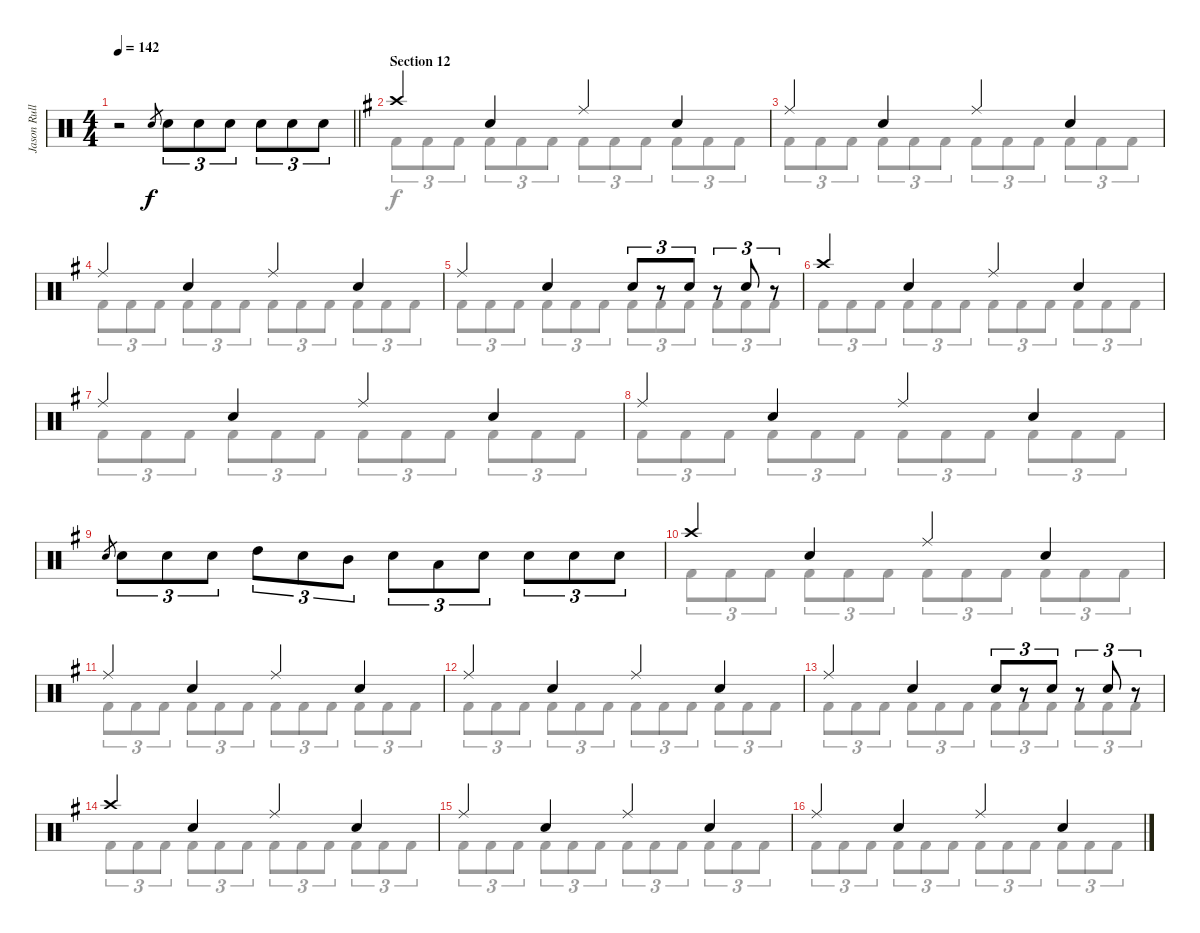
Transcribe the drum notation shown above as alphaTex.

\track ("Jason Rullo (drums)" "Jason Rull") {instrument percussion}
\staff {score}
\articulation defaults
\voice
\ts (4 4)
\tempo 142
\clef neutral
\barLineRight lightlight
\ks aminor
r.2{dy f} "Electric Snare (hit)".8{gr} "Electric Snare (hit)".8{tu (3 2)} "Electric Snare (hit)".8{tu (3 2)} "Electric Snare (hit)".8{tu (3 2)} "Electric Snare (hit)".8{tu (3 2)} "Electric Snare (hit)".8{tu (3 2)} "Electric Snare (hit)".8{tu (3 2)} |
\section ("" "Section 12")
\ks eminor "Crash high (hit)".4 "Electric Snare (hit)".4 "Ride (middle)".4 "Electric Snare (hit)".4
|
"Ride (middle)".4 "Electric Snare (hit)".4 "Ride (middle)".4 "Electric Snare (hit)".4 |
"Ride (middle)".4 "Electric Snare (hit)".4 "Ride (middle)".4 "Electric Snare (hit)".4 |
"Ride (middle)".4 "Electric Snare (hit)".4 "Electric Snare (hit)".8{tu (3 2)} r.8{tu (3 2)} "Electric Snare (hit)".8{tu (3 2)} r.8{tu (3 2)} "Electric Snare (hit)".8{tu (3 2)} r.8{tu (3 2)} |
"Crash high (hit)".4 "Electric Snare (hit)".4 "Ride (middle)".4 "Electric Snare (hit)".4 |
"Ride (middle)".4 "Electric Snare (hit)".4 "Ride (middle)".4 "Electric Snare (hit)".4 |
"Ride (middle)".4 "Electric Snare (hit)".4 "Ride (middle)".4 "Electric Snare (hit)".4 |
"Electric Snare (hit)".8{gr} "Electric Snare (hit)".8{tu (3 2)} "Electric Snare (hit)".8{tu (3 2)} "Electric Snare (hit)".8{tu (3 2)} "High Tom (hit)".8{tu (3 2)} "Electric Snare (hit)".8{tu (3 2)} "Mid Tom (hit)".8{tu (3 2)} "Electric Snare (hit)".8{tu (3 2)} "Low Tom (hit)".8{tu (3 2)} "Electric Snare (hit)".8{tu (3 2)} "Electric Snare (hit)".8{tu (3 2)} "Electric Snare (hit)".8{tu (3 2)} "Electric Snare (hit)".8{tu (3 2)} |
"Crash high (hit)".4 "Electric Snare (hit)".4 "Ride (middle)".4 "Electric Snare (hit)".4 |
"Ride (middle)".4 "Electric Snare (hit)".4 "Ride (middle)".4 "Electric Snare (hit)".4 |
"Ride (middle)".4 "Electric Snare (hit)".4 "Ride (middle)".4 "Electric Snare (hit)".4 |
"Ride (middle)".4 "Electric Snare (hit)".4 "Electric Snare (hit)".8{tu (3 2)} r.8{tu (3 2)} "Electric Snare (hit)".8{tu (3 2)} r.8{tu (3 2)} "Electric Snare (hit)".8{tu (3 2)} r.8{tu (3 2)} |
"Crash high (hit)".4 "Electric Snare (hit)".4 "Ride (middle)".4 "Electric Snare (hit)".4 |
"Ride (middle)".4 "Electric Snare (hit)".4 "Ride (middle)".4 "Electric Snare (hit)".4 |
"Ride (middle)".4 "Electric Snare (hit)".4 "Ride (middle)".4 "Electric Snare (hit)".4
\voice
\clef neutral
\ottava regular
\simile none
\barLineRight lightlight
\ks aminor
|
\ks eminor "Kick (hit) 2".8{tu (3 2)} "Kick (hit) 2".8{tu (3 2)} "Kick (hit) 2".8{tu (3 2)} "Kick (hit) 2".8{tu (3 2)} "Kick (hit) 2".8{tu (3 2)} "Kick (hit) 2".8{tu (3 2)} "Kick (hit) 2".8{tu (3 2)} "Kick (hit) 2".8{tu (3 2)} "Kick (hit) 2".8{tu (3 2)} "Kick (hit) 2".8{tu (3 2)} "Kick (hit) 2".8{tu (3 2)} "Kick (hit) 2".8{tu (3 2)}
|
"Kick (hit) 2".8{tu (3 2)} "Kick (hit) 2".8{tu (3 2)} "Kick (hit) 2".8{tu (3 2)} "Kick (hit) 2".8{tu (3 2)} "Kick (hit) 2".8{tu (3 2)} "Kick (hit) 2".8{tu (3 2)} "Kick (hit) 2".8{tu (3 2)} "Kick (hit) 2".8{tu (3 2)} "Kick (hit) 2".8{tu (3 2)} "Kick (hit) 2".8{tu (3 2)} "Kick (hit) 2".8{tu (3 2)} "Kick (hit) 2".8{tu (3 2)} |
"Kick (hit) 2".8{tu (3 2)} "Kick (hit) 2".8{tu (3 2)} "Kick (hit) 2".8{tu (3 2)} "Kick (hit) 2".8{tu (3 2)} "Kick (hit) 2".8{tu (3 2)} "Kick (hit) 2".8{tu (3 2)} "Kick (hit) 2".8{tu (3 2)} "Kick (hit) 2".8{tu (3 2)} "Kick (hit) 2".8{tu (3 2)} "Kick (hit) 2".8{tu (3 2)} "Kick (hit) 2".8{tu (3 2)} "Kick (hit) 2".8{tu (3 2)} |
"Kick (hit) 2".8{tu (3 2)} "Kick (hit) 2".8{tu (3 2)} "Kick (hit) 2".8{tu (3 2)} "Kick (hit) 2".8{tu (3 2)} "Kick (hit) 2".8{tu (3 2)} "Kick (hit) 2".8{tu (3 2)} "Kick (hit) 2".8{tu (3 2)} "Kick (hit) 2".8{tu (3 2)} "Kick (hit) 2".8{tu (3 2)} "Kick (hit) 2".8{tu (3 2)} "Kick (hit) 2".8{tu (3 2)} "Kick (hit) 2".8{tu (3 2)} |
"Kick (hit) 2".8{tu (3 2)} "Kick (hit) 2".8{tu (3 2)} "Kick (hit) 2".8{tu (3 2)} "Kick (hit) 2".8{tu (3 2)} "Kick (hit) 2".8{tu (3 2)} "Kick (hit) 2".8{tu (3 2)} "Kick (hit) 2".8{tu (3 2)} "Kick (hit) 2".8{tu (3 2)} "Kick (hit) 2".8{tu (3 2)} "Kick (hit) 2".8{tu (3 2)} "Kick (hit) 2".8{tu (3 2)} "Kick (hit) 2".8{tu (3 2)} |
"Kick (hit) 2".8{tu (3 2)} "Kick (hit) 2".8{tu (3 2)} "Kick (hit) 2".8{tu (3 2)} "Kick (hit) 2".8{tu (3 2)} "Kick (hit) 2".8{tu (3 2)} "Kick (hit) 2".8{tu (3 2)} "Kick (hit) 2".8{tu (3 2)} "Kick (hit) 2".8{tu (3 2)} "Kick (hit) 2".8{tu (3 2)} "Kick (hit) 2".8{tu (3 2)} "Kick (hit) 2".8{tu (3 2)} "Kick (hit) 2".8{tu (3 2)} |
"Kick (hit) 2".8{tu (3 2)} "Kick (hit) 2".8{tu (3 2)} "Kick (hit) 2".8{tu (3 2)} "Kick (hit) 2".8{tu (3 2)} "Kick (hit) 2".8{tu (3 2)} "Kick (hit) 2".8{tu (3 2)} "Kick (hit) 2".8{tu (3 2)} "Kick (hit) 2".8{tu (3 2)} "Kick (hit) 2".8{tu (3 2)} "Kick (hit) 2".8{tu (3 2)} "Kick (hit) 2".8{tu (3 2)} "Kick (hit) 2".8{tu (3 2)} |
|
"Kick (hit) 2".8{tu (3 2)} "Kick (hit) 2".8{tu (3 2)} "Kick (hit) 2".8{tu (3 2)} "Kick (hit) 2".8{tu (3 2)} "Kick (hit) 2".8{tu (3 2)} "Kick (hit) 2".8{tu (3 2)} "Kick (hit) 2".8{tu (3 2)} "Kick (hit) 2".8{tu (3 2)} "Kick (hit) 2".8{tu (3 2)} "Kick (hit) 2".8{tu (3 2)} "Kick (hit) 2".8{tu (3 2)} "Kick (hit) 2".8{tu (3 2)} |
"Kick (hit) 2".8{tu (3 2)} "Kick (hit) 2".8{tu (3 2)} "Kick (hit) 2".8{tu (3 2)} "Kick (hit) 2".8{tu (3 2)} "Kick (hit) 2".8{tu (3 2)} "Kick (hit) 2".8{tu (3 2)} "Kick (hit) 2".8{tu (3 2)} "Kick (hit) 2".8{tu (3 2)} "Kick (hit) 2".8{tu (3 2)} "Kick (hit) 2".8{tu (3 2)} "Kick (hit) 2".8{tu (3 2)} "Kick (hit) 2".8{tu (3 2)} |
"Kick (hit) 2".8{tu (3 2)} "Kick (hit) 2".8{tu (3 2)} "Kick (hit) 2".8{tu (3 2)} "Kick (hit) 2".8{tu (3 2)} "Kick (hit) 2".8{tu (3 2)} "Kick (hit) 2".8{tu (3 2)} "Kick (hit) 2".8{tu (3 2)} "Kick (hit) 2".8{tu (3 2)} "Kick (hit) 2".8{tu (3 2)} "Kick (hit) 2".8{tu (3 2)} "Kick (hit) 2".8{tu (3 2)} "Kick (hit) 2".8{tu (3 2)} |
"Kick (hit) 2".8{tu (3 2)} "Kick (hit) 2".8{tu (3 2)} "Kick (hit) 2".8{tu (3 2)} "Kick (hit) 2".8{tu (3 2)} "Kick (hit) 2".8{tu (3 2)} "Kick (hit) 2".8{tu (3 2)} "Kick (hit) 2".8{tu (3 2)} "Kick (hit) 2".8{tu (3 2)} "Kick (hit) 2".8{tu (3 2)} "Kick (hit) 2".8{tu (3 2)} "Kick (hit) 2".8{tu (3 2)} "Kick (hit) 2".8{tu (3 2)} |
"Kick (hit) 2".8{tu (3 2)} "Kick (hit) 2".8{tu (3 2)} "Kick (hit) 2".8{tu (3 2)} "Kick (hit) 2".8{tu (3 2)} "Kick (hit) 2".8{tu (3 2)} "Kick (hit) 2".8{tu (3 2)} "Kick (hit) 2".8{tu (3 2)} "Kick (hit) 2".8{tu (3 2)} "Kick (hit) 2".8{tu (3 2)} "Kick (hit) 2".8{tu (3 2)} "Kick (hit) 2".8{tu (3 2)} "Kick (hit) 2".8{tu (3 2)} |
"Kick (hit) 2".8{tu (3 2)} "Kick (hit) 2".8{tu (3 2)} "Kick (hit) 2".8{tu (3 2)} "Kick (hit) 2".8{tu (3 2)} "Kick (hit) 2".8{tu (3 2)} "Kick (hit) 2".8{tu (3 2)} "Kick (hit) 2".8{tu (3 2)} "Kick (hit) 2".8{tu (3 2)} "Kick (hit) 2".8{tu (3 2)} "Kick (hit) 2".8{tu (3 2)} "Kick (hit) 2".8{tu (3 2)} "Kick (hit) 2".8{tu (3 2)} |
"Kick (hit) 2".8{tu (3 2)} "Kick (hit) 2".8{tu (3 2)} "Kick (hit) 2".8{tu (3 2)} "Kick (hit) 2".8{tu (3 2)} "Kick (hit) 2".8{tu (3 2)} "Kick (hit) 2".8{tu (3 2)} "Kick (hit) 2".8{tu (3 2)} "Kick (hit) 2".8{tu (3 2)} "Kick (hit) 2".8{tu (3 2)} "Kick (hit) 2".8{tu (3 2)} "Kick (hit) 2".8{tu (3 2)} "Kick (hit) 2".8{tu (3 2)}
